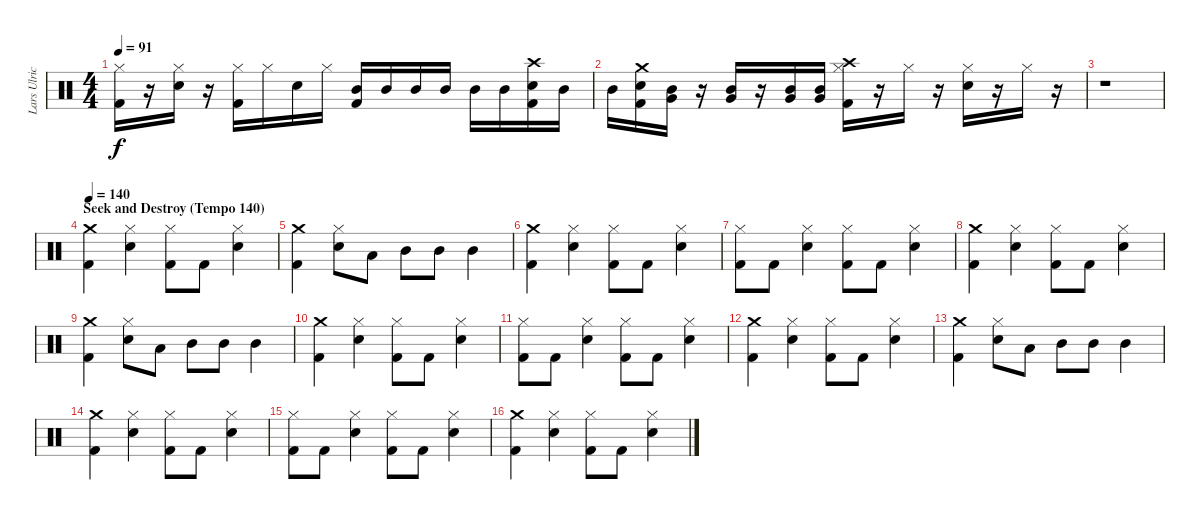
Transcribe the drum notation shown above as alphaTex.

\track ("Lars Ulrich (Drums)" "Lars Ulric") {instrument percussion}
\staff {score}
\articulation defaults
\ts (4 4)
\tempo 91
\clef neutral
\ks c
("Kick (hit) 2" "Hi-Hat (closed)").16{dy f} r.16 ("Snare (hit) 2" "Hi-Hat (closed)").16 r.16 ("Kick (hit) 2" "Hi-Hat (closed)").16 "Hi-Hat (closed)".16 "Snare (hit) 2".16 "Hi-Hat (closed)".16 ("Kick (hit) 2" "Mid Tom (hit)").16 "Mid Tom (hit)".16 "Mid Tom (hit)".16 "Mid Tom (hit)".16 "Mid Tom (hit)".16 "Mid Tom (hit)".16 ("Kick (hit) 2" "Snare (hit) 2" "Crash high (hit)").16 "Mid Tom (hit)".16 |
"Mid Tom (hit)".16 ("Kick (hit) 2" "Snare (hit) 2" "Crash medium (hit)").16 ("Very Low Tom (hit)" "Mid Tom (hit)").16 r.16 ("Very Low Tom (hit)" "Mid Tom (hit)").16 r.16 ("Very Low Tom (hit)" "Mid Tom (hit)").16 ("Very Low Tom (hit)" "Mid Tom (hit)").16 ("Kick (hit) 2" "Hi-Hat (closed)" "Crash high (hit)").16 r.16 "Hi-Hat (closed)".16 r.16 ("Snare (hit) 2" "Hi-Hat (closed)").16 r.16 "Hi-Hat (closed)".16 r.16 |
r.1 |
\section ("" "Seek and Destroy (Tempo 140)")
\tempo 140
("Kick (hit) 2" "Crash medium (hit)").4 ("Snare (hit) 2" "Hi-Hat (closed)").4 ("Kick (hit) 2" "Hi-Hat (closed)").8 "Kick (hit) 2".8 ("Snare (hit) 2" "Hi-Hat (closed)").4 |
("Kick (hit) 2" "Crash medium (hit)").4 ("Snare (hit) 2" "Hi-Hat (closed)").8 "Low Tom (hit)".8 "Mid Tom (hit)".8 "Mid Tom (hit)".8 "Mid Tom (hit)".4 |
("Kick (hit) 2" "Crash medium (hit)").4 ("Snare (hit) 2" "Hi-Hat (closed)").4 ("Kick (hit) 2" "Hi-Hat (closed)").8 "Kick (hit) 2".8 ("Snare (hit) 2" "Hi-Hat (closed)").4 |
("Hi-Hat (closed)" "Kick (hit) 2").8 "Kick (hit) 2".8 ("Snare (hit) 2" "Hi-Hat (closed)").4 ("Hi-Hat (closed)" "Kick (hit) 2").8 "Kick (hit) 2".8 ("Snare (hit) 2" "Hi-Hat (closed)").4 |
("Kick (hit) 2" "Crash medium (hit)").4 ("Snare (hit) 2" "Hi-Hat (closed)").4 ("Kick (hit) 2" "Hi-Hat (closed)").8 "Kick (hit) 2".8 ("Snare (hit) 2" "Hi-Hat (closed)").4 |
("Kick (hit) 2" "Crash medium (hit)").4 ("Snare (hit) 2" "Hi-Hat (closed)").8 "Low Tom (hit)".8 "Mid Tom (hit)".8 "Mid Tom (hit)".8 "Mid Tom (hit)".4 |
("Kick (hit) 2" "Crash medium (hit)").4 ("Snare (hit) 2" "Hi-Hat (closed)").4 ("Kick (hit) 2" "Hi-Hat (closed)").8 "Kick (hit) 2".8 ("Snare (hit) 2" "Hi-Hat (closed)").4 |
("Hi-Hat (closed)" "Kick (hit) 2").8 "Kick (hit) 2".8 ("Snare (hit) 2" "Hi-Hat (closed)").4 ("Hi-Hat (closed)" "Kick (hit) 2").8 "Kick (hit) 2".8 ("Snare (hit) 2" "Hi-Hat (closed)").4 |
("Kick (hit) 2" "Crash medium (hit)").4 ("Snare (hit) 2" "Hi-Hat (closed)").4 ("Kick (hit) 2" "Hi-Hat (closed)").8 "Kick (hit) 2".8 ("Snare (hit) 2" "Hi-Hat (closed)").4 |
("Kick (hit) 2" "Crash medium (hit)").4 ("Snare (hit) 2" "Hi-Hat (closed)").8 "Low Tom (hit)".8 "Mid Tom (hit)".8 "Mid Tom (hit)".8 "Mid Tom (hit)".4 |
("Kick (hit) 2" "Crash medium (hit)").4 ("Snare (hit) 2" "Hi-Hat (closed)").4 ("Kick (hit) 2" "Hi-Hat (closed)").8 "Kick (hit) 2".8 ("Snare (hit) 2" "Hi-Hat (closed)").4 |
("Hi-Hat (closed)" "Kick (hit) 2").8 "Kick (hit) 2".8 ("Snare (hit) 2" "Hi-Hat (closed)").4 ("Hi-Hat (closed)" "Kick (hit) 2").8 "Kick (hit) 2".8 ("Snare (hit) 2" "Hi-Hat (closed)").4 |
("Kick (hit) 2" "Crash medium (hit)").4 ("Snare (hit) 2" "Hi-Hat (closed)").4 ("Kick (hit) 2" "Hi-Hat (closed)").8 "Kick (hit) 2".8 ("Snare (hit) 2" "Hi-Hat (closed)").4
